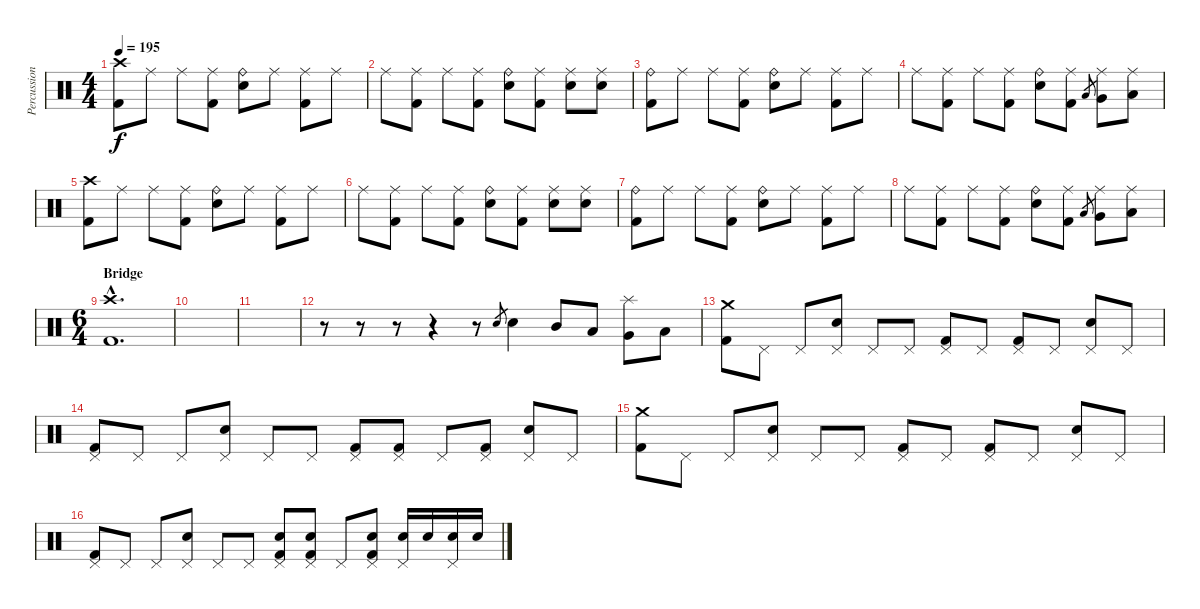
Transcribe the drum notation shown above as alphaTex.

\track ("Percussion" "Percussion") {instrument percussion}
\staff {score}
\articulation defaults
\ts (4 4)
\tempo 195
\clef neutral
\ks c
("Crash high (hit)" "Kick (hit) 2").8{dy f} "Ride (middle)".8 "Ride (middle)".8 ("Ride (middle)" "Kick (hit) 2").8 ("Ride (bell)" "Electric Snare (hit)").8 "Ride (middle)".8 ("Ride (middle)" "Kick (hit) 2").8 "Ride (middle)".8 |
"Ride (middle)".8 ("Ride (middle)" "Kick (hit) 2").8 "Ride (middle)".8 ("Ride (middle)" "Kick (hit) 2").8 ("Ride (bell)" "Electric Snare (hit)").8 ("Ride (middle)" "Kick (hit) 2").8 ("Ride (middle)" "Electric Snare (hit)").8 ("Ride (middle)" "Electric Snare (hit)").8 |
("Ride (bell)" "Kick (hit) 2").8 "Ride (middle)".8 "Ride (middle)".8 ("Ride (middle)" "Kick (hit) 2").8 ("Ride (bell)" "Electric Snare (hit)").8 "Ride (middle)".8 ("Ride (middle)" "Kick (hit) 2").8 "Ride (middle)".8 |
"Ride (middle)".8 ("Ride (middle)" "Kick (hit) 2").8 "Ride (middle)".8 ("Ride (middle)" "Kick (hit) 2").8 ("Ride (bell)" "Electric Snare (hit)").8 ("Ride (middle)" "Kick (hit) 2").8 "Low Tom (hit)".8{gr} ("Ride (middle)" "Very Low Tom (hit)").8 ("Ride (middle)" "Low Floor Tom (hit)").8 |
("Crash high (hit)" "Kick (hit) 2").8 "Ride (middle)".8 "Ride (middle)".8 ("Ride (middle)" "Kick (hit) 2").8 ("Ride (bell)" "Electric Snare (hit)").8 "Ride (middle)".8 ("Ride (middle)" "Kick (hit) 2").8 "Ride (middle)".8 |
"Ride (middle)".8 ("Ride (middle)" "Kick (hit) 2").8 "Ride (middle)".8 ("Ride (middle)" "Kick (hit) 2").8 ("Ride (bell)" "Electric Snare (hit)").8 ("Ride (middle)" "Kick (hit) 2").8 ("Ride (middle)" "Electric Snare (hit)").8 ("Ride (middle)" "Electric Snare (hit)").8 |
("Ride (bell)" "Kick (hit) 2").8 "Ride (middle)".8 "Ride (middle)".8 ("Ride (middle)" "Kick (hit) 2").8 ("Ride (bell)" "Electric Snare (hit)").8 "Ride (middle)".8 ("Ride (middle)" "Kick (hit) 2").8 "Ride (middle)".8 |
"Ride (middle)".8 ("Ride (middle)" "Kick (hit) 2").8 "Ride (middle)".8 ("Ride (middle)" "Kick (hit) 2").8 ("Ride (bell)" "Electric Snare (hit)").8 ("Ride (middle)" "Kick (hit) 2").8 "Low Tom (hit)".8{gr} ("Ride (middle)" "Very Low Tom (hit)").8 ("Ride (middle)" "Low Floor Tom (hit)").8 |
\ts (6 4)
\section ("" "Bridge")
("Crash high (hit)"{hac} "Kick (hit) 2"{hac}).1{d} |
|
|
r.8 r.8 r.8 r.4 r.8 "Electric Snare (hit)".8{gr} "Electric Snare (hit)".4 "Mid Tom (hit)".8 "Low Tom (hit)".8 ("Splash (hit)" "Very Low Tom (hit)").8 "Low Floor Tom (hit)".8 |
("Crash medium (hit)" "Kick (hit) 2").8 "Pedal Hi-Hat (hit)".8 "Pedal Hi-Hat (hit)".8 ("Pedal Hi-Hat (hit)" "Electric Snare (hit)").8 "Pedal Hi-Hat (hit)".8 "Pedal Hi-Hat (hit)".8 ("Pedal Hi-Hat (hit)" "Kick (hit) 2").8 "Pedal Hi-Hat (hit)".8 ("Pedal Hi-Hat (hit)" "Kick (hit) 2").8 "Pedal Hi-Hat (hit)".8 ("Pedal Hi-Hat (hit)" "Electric Snare (hit)").8 "Pedal Hi-Hat (hit)".8 |
("Pedal Hi-Hat (hit)" "Kick (hit) 2").8 "Pedal Hi-Hat (hit)".8 "Pedal Hi-Hat (hit)".8 ("Pedal Hi-Hat (hit)" "Electric Snare (hit)").8 "Pedal Hi-Hat (hit)".8 "Pedal Hi-Hat (hit)".8 ("Pedal Hi-Hat (hit)" "Kick (hit) 2").8 ("Pedal Hi-Hat (hit)" "Kick (hit) 2").8 "Pedal Hi-Hat (hit)".8 ("Pedal Hi-Hat (hit)" "Kick (hit) 2").8 ("Pedal Hi-Hat (hit)" "Electric Snare (hit)").8 "Pedal Hi-Hat (hit)".8 |
("Crash medium (hit)" "Kick (hit) 2").8 "Pedal Hi-Hat (hit)".8 "Pedal Hi-Hat (hit)".8 ("Pedal Hi-Hat (hit)" "Electric Snare (hit)").8 "Pedal Hi-Hat (hit)".8 "Pedal Hi-Hat (hit)".8 ("Pedal Hi-Hat (hit)" "Kick (hit) 2").8 "Pedal Hi-Hat (hit)".8 ("Pedal Hi-Hat (hit)" "Kick (hit) 2").8 "Pedal Hi-Hat (hit)".8 ("Pedal Hi-Hat (hit)" "Electric Snare (hit)").8 "Pedal Hi-Hat (hit)".8 |
("Pedal Hi-Hat (hit)" "Kick (hit) 2").8 "Pedal Hi-Hat (hit)".8 "Pedal Hi-Hat (hit)".8 ("Pedal Hi-Hat (hit)" "Electric Snare (hit)").8 "Pedal Hi-Hat (hit)".8 "Pedal Hi-Hat (hit)".8 ("Pedal Hi-Hat (hit)" "Electric Snare (hit)" "Kick (hit) 2").8 ("Pedal Hi-Hat (hit)" "Electric Snare (hit)" "Kick (hit) 2").8 "Pedal Hi-Hat (hit)".8 ("Pedal Hi-Hat (hit)" "Electric Snare (hit)" "Kick (hit) 2").8 ("Pedal Hi-Hat (hit)" "Electric Snare (hit)").16 "Electric Snare (hit)".16 ("Pedal Hi-Hat (hit)" "Electric Snare (hit)").16 "Electric Snare (hit)".16
